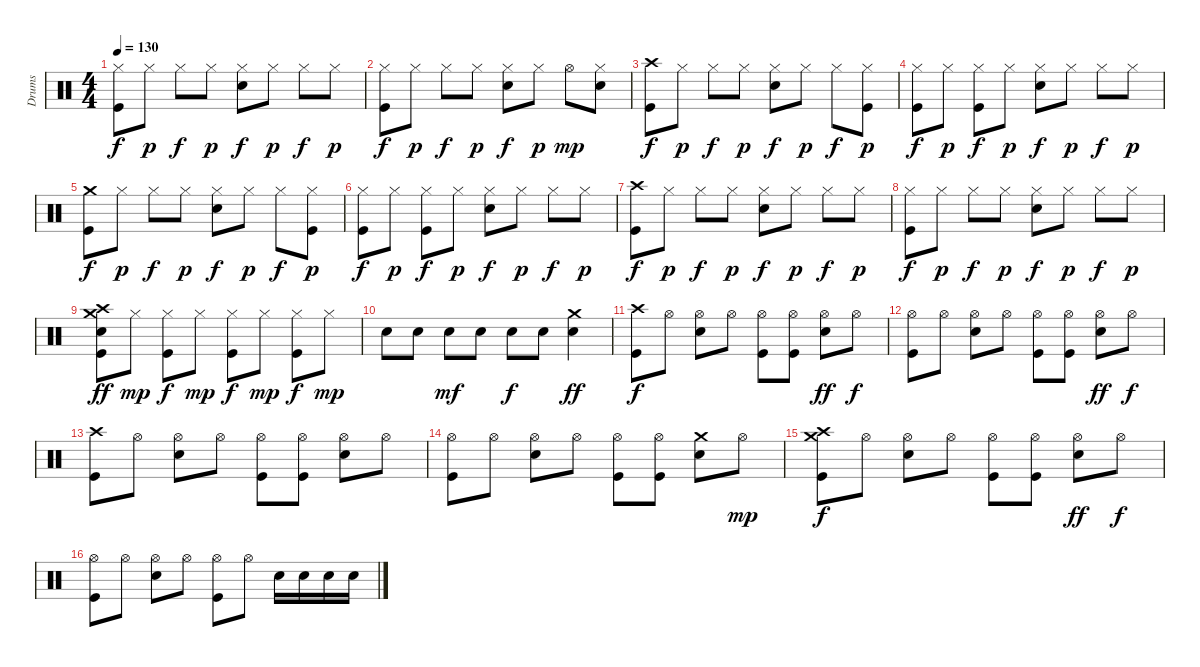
\track ("Drums" "Drums") {instrument percussion}
\staff {score}
\articulation defaults
\ts (4 4)
\tempo 130
\clef neutral
\ks c
("Hi-Hat (closed)" "Kick (hit)").8{dy f} "Hi-Hat (closed)".8{dy p} "Hi-Hat (closed)".8{dy f} "Hi-Hat (closed)".8{dy p} ("Hi-Hat (closed)" "Snare (hit) 2").8{dy f} "Hi-Hat (closed)".8{dy p} "Hi-Hat (closed)".8{dy f} "Hi-Hat (closed)".8{dy p} |
("Hi-Hat (closed)" "Kick (hit)").8{dy f} "Hi-Hat (closed)".8{dy p} "Hi-Hat (closed)".8{dy f} "Hi-Hat (closed)".8{dy p} ("Hi-Hat (closed)" "Snare (hit) 2").8{dy f} "Hi-Hat (closed)".8{dy p} "Hi-Hat (open)".8{dy mp} ("Hi-Hat (closed)" "Snare (hit) 2").8 |
("Crash high (hit)" "Kick (hit)").8{dy f} "Hi-Hat (closed)".8{dy p} "Hi-Hat (closed)".8{dy f} "Hi-Hat (closed)".8{dy p} ("Hi-Hat (closed)" "Snare (hit) 2").8{dy f} "Hi-Hat (closed)".8{dy p} "Hi-Hat (closed)".8{dy f} ("Hi-Hat (closed)" "Kick (hit)").8{dy p} |
("Hi-Hat (closed)" "Kick (hit)").8{dy f} "Hi-Hat (closed)".8{dy p} ("Hi-Hat (closed)" "Kick (hit)").8{dy f} "Hi-Hat (closed)".8{dy p} ("Hi-Hat (closed)" "Snare (hit) 2").8{dy f} "Hi-Hat (closed)".8{dy p} "Hi-Hat (closed)".8{dy f} "Hi-Hat (closed)".8{dy p} |
("Crash medium (hit)" "Kick (hit)").8{dy f} "Hi-Hat (closed)".8{dy p} "Hi-Hat (closed)".8{dy f} "Hi-Hat (closed)".8{dy p} ("Hi-Hat (closed)" "Snare (hit) 2").8{dy f} "Hi-Hat (closed)".8{dy p} "Hi-Hat (closed)".8{dy f} ("Hi-Hat (closed)" "Kick (hit)").8{dy p} |
("Hi-Hat (closed)" "Kick (hit)").8{dy f} "Hi-Hat (closed)".8{dy p} ("Hi-Hat (closed)" "Kick (hit)").8{dy f} "Hi-Hat (closed)".8{dy p} ("Hi-Hat (closed)" "Snare (hit) 2").8{dy f} "Hi-Hat (closed)".8{dy p} "Hi-Hat (closed)".8{dy f} "Hi-Hat (closed)".8{dy p} |
("Crash high (hit)" "Kick (hit)").8{dy f} "Hi-Hat (closed)".8{dy p} "Hi-Hat (closed)".8{dy f} "Hi-Hat (closed)".8{dy p} ("Hi-Hat (closed)" "Snare (hit) 2").8{dy f} "Hi-Hat (closed)".8{dy p} "Hi-Hat (closed)".8{dy f} "Hi-Hat (closed)".8{dy p} |
("Hi-Hat (closed)" "Kick (hit)").8{dy f} "Hi-Hat (closed)".8{dy p} "Hi-Hat (closed)".8{dy f} "Hi-Hat (closed)".8{dy p} ("Hi-Hat (closed)" "Snare (hit) 2").8{dy f} "Hi-Hat (closed)".8{dy p} "Hi-Hat (closed)".8{dy f} "Hi-Hat (closed)".8{dy p} |
("Crash high (hit)" "Crash medium (hit)" "Snare (hit) 2" "Kick (hit)").8{dy ff} "Hi-Hat (closed)".8{dy mp} ("Hi-Hat (closed)" "Kick (hit)").8{dy f} "Hi-Hat (closed)".8{dy mp} ("Hi-Hat (closed)" "Kick (hit)").8{dy f} "Hi-Hat (closed)".8{dy mp} ("Hi-Hat (closed)" "Kick (hit)").8{dy f} "Hi-Hat (closed)".8{dy mp} |
"Snare (hit) 2".8 "Snare (hit) 2".8 "Snare (hit) 2".8{dy mf} "Snare (hit) 2".8 "Snare (hit) 2".8{dy f} "Snare (hit) 2".8 ("Crash medium (hit)" "Snare (hit) 2").4{dy ff} |
("Crash high (hit)" "Kick (hit)").8{dy f} "Hi-Hat (open)".8 ("Hi-Hat (open)" "Snare (hit) 2").8 "Hi-Hat (open)".8 ("Hi-Hat (open)" "Kick (hit)").8 ("Hi-Hat (open)" "Kick (hit)").8 ("Hi-Hat (open)" "Snare (hit) 2").8{dy ff} "Hi-Hat (open)".8{dy f} |
("Hi-Hat (open)" "Kick (hit)").8 "Hi-Hat (open)".8 ("Hi-Hat (open)" "Snare (hit) 2").8 "Hi-Hat (open)".8 ("Hi-Hat (open)" "Kick (hit)").8 ("Hi-Hat (open)" "Kick (hit)").8 ("Hi-Hat (open)" "Snare (hit) 2").8{dy ff} "Hi-Hat (open)".8{dy f} |
("Crash high (hit)" "Kick (hit)").8 "Hi-Hat (open)".8 ("Hi-Hat (open)" "Snare (hit) 2").8 "Hi-Hat (open)".8 ("Hi-Hat (open)" "Kick (hit)").8 ("Hi-Hat (open)" "Kick (hit)").8 ("Hi-Hat (open)" "Snare (hit) 2").8 "Hi-Hat (open)".8 |
("Hi-Hat (open)" "Kick (hit)").8 "Hi-Hat (open)".8 ("Hi-Hat (open)" "Snare (hit) 2").8 "Hi-Hat (open)".8 ("Hi-Hat (open)" "Kick (hit)").8 ("Hi-Hat (open)" "Kick (hit)").8 ("Crash medium (hit)" "Snare (hit) 2").8 "Hi-Hat (open)".8{dy mp} |
("Crash high (hit)" "Crash medium (hit)" "Kick (hit)").8{dy f} "Hi-Hat (open)".8 ("Hi-Hat (open)" "Snare (hit) 2").8 "Hi-Hat (open)".8 ("Hi-Hat (open)" "Kick (hit)").8 ("Hi-Hat (open)" "Kick (hit)").8 ("Hi-Hat (open)" "Snare (hit) 2").8{dy ff} "Hi-Hat (open)".8{dy f} |
("Hi-Hat (open)" "Kick (hit)").8 "Hi-Hat (open)".8 ("Hi-Hat (open)" "Snare (hit) 2").8 "Hi-Hat (open)".8 ("Hi-Hat (open)" "Kick (hit)").8 "Hi-Hat (open)".8 "Snare (hit) 2".16 "Snare (hit) 2".16 "Snare (hit) 2".16 "Snare (hit) 2".16
